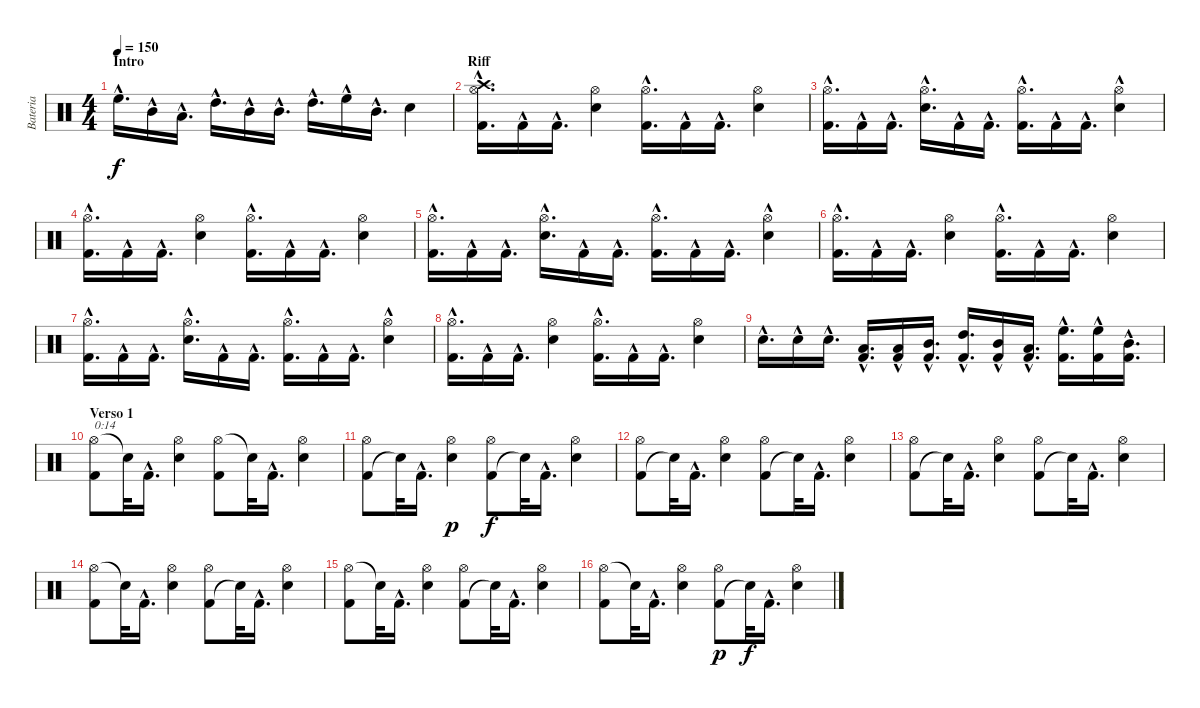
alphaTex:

\track ("Bateria" "Bateria") {instrument percussion}
\staff {score}
\articulation defaults
\ts (4 4)
\section ("" "Intro")
\tempo 150
\clef neutral
\ks c "High Floor Tom (hit)"{hac}.16{d dy f} "Mid Tom (hit)"{hac}.16 "Low Tom (hit)"{hac}.16{d} "High Tom (hit)"{hac}.16{d} "Mid Tom (hit)"{hac}.16 "Mid Tom (hit)"{hac}.16{d} "High Tom (hit)"{hac}.16{d} "High Floor Tom (hit)"{hac}.16 "Mid Tom (hit)"{hac}.16{d} "Snare (hit) 2".4
|
\section ("" "Riff")
("Crash high (hit)" "Hi-Hat (open)" "Kick (hit) 2"{hac}).16{d} "Kick (hit) 2"{hac}.16 "Kick (hit) 2"{hac}.16{d} ("Hi-Hat (open)" "Snare (hit) 2").4 ("Hi-Hat (open)" "Kick (hit) 2"{hac}).16{d} "Kick (hit) 2"{hac}.16 "Kick (hit) 2"{hac}.16{d} ("Hi-Hat (open)" "Snare (hit) 2").4 |
("Hi-Hat (open)" "Kick (hit) 2"{hac}).16{d} "Kick (hit) 2"{hac}.16 "Kick (hit) 2"{hac}.16{d} ("Hi-Hat (open)" "Snare (hit) 2"{hac}).16{d} "Kick (hit) 2"{hac}.16 "Kick (hit) 2"{hac}.16{d} ("Hi-Hat (open)" "Kick (hit) 2"{hac}).16{d} "Kick (hit) 2"{hac}.16 "Kick (hit) 2"{hac}.16{d} ("Hi-Hat (open)" "Electric Snare (hit)"{hac}).4 |
("Kick (hit) 2"{hac} "Hi-Hat (open)").16{d} "Kick (hit) 2"{hac}.16 "Kick (hit) 2"{hac}.16{d} ("Snare (hit) 2" "Hi-Hat (open)").4 ("Kick (hit) 2"{hac} "Hi-Hat (open)").16{d} "Kick (hit) 2"{hac}.16 "Kick (hit) 2"{hac}.16{d} ("Snare (hit) 2" "Hi-Hat (open)").4 |
("Kick (hit) 2"{hac} "Hi-Hat (open)").16{d} "Kick (hit) 2"{hac}.16 "Kick (hit) 2"{hac}.16{d} ("Snare (hit) 2"{hac} "Hi-Hat (open)").16{d} "Kick (hit) 2"{hac}.16 "Kick (hit) 2"{hac}.16{d} ("Kick (hit) 2"{hac} "Hi-Hat (open)").16{d} "Kick (hit) 2"{hac}.16 "Kick (hit) 2"{hac}.16{d} ("Electric Snare (hit)"{hac} "Hi-Hat (open)").4 |
("Kick (hit) 2"{hac} "Hi-Hat (open)").16{d} "Kick (hit) 2"{hac}.16 "Kick (hit) 2"{hac}.16{d} ("Snare (hit) 2" "Hi-Hat (open)").4 ("Kick (hit) 2"{hac} "Hi-Hat (open)").16{d} "Kick (hit) 2"{hac}.16 "Kick (hit) 2"{hac}.16{d} ("Snare (hit) 2" "Hi-Hat (open)").4 |
("Kick (hit) 2"{hac} "Hi-Hat (open)").16{d} "Kick (hit) 2"{hac}.16 "Kick (hit) 2"{hac}.16{d} ("Snare (hit) 2"{hac} "Hi-Hat (open)").16{d} "Kick (hit) 2"{hac}.16 "Kick (hit) 2"{hac}.16{d} ("Kick (hit) 2"{hac} "Hi-Hat (open)").16{d} "Kick (hit) 2"{hac}.16 "Kick (hit) 2"{hac}.16{d} ("Electric Snare (hit)"{hac} "Hi-Hat (open)").4 |
("Kick (hit) 2"{hac} "Hi-Hat (open)").16{d} "Kick (hit) 2"{hac}.16 "Kick (hit) 2"{hac}.16{d} ("Snare (hit) 2" "Hi-Hat (open)").4 ("Kick (hit) 2"{hac} "Hi-Hat (open)").16{d} "Kick (hit) 2"{hac}.16 "Kick (hit) 2"{hac}.16{d} ("Snare (hit) 2" "Hi-Hat (open)").4 |
"Snare (hit) 2"{hac}.16{d} "Snare (hit) 2"{hac}.16 "Snare (hit) 2"{hac}.16{d} ("Low Tom (hit)"{hac} "Kick (hit) 2"{hac}).16{d} ("Low Tom (hit)"{hac} "Kick (hit) 2"{hac}).16 ("Mid Tom (hit)"{hac} "Kick (hit) 2"{hac}).16{d} ("High Tom (hit)"{hac} "Kick (hit) 2"{hac}).16{d} ("Mid Tom (hit)"{hac} "Kick (hit) 2"{hac}).16 ("Low Tom (hit)"{hac} "Kick (hit) 2"{hac}).16{d} ("High Floor Tom (hit)"{hac} "Kick (hit) 2"{hac}).16{d} ("High Floor Tom (hit)"{hac} "Kick (hit) 2"{hac}).16 ("Mid Tom (hit)"{hac} "Kick (hit) 2"{hac}).16{d} |
\section ("" "Verso 1")
("Hi-Hat (open)" "Kick (hit) 2").8{txt "0:14"} "Snare (hit)"{t}.32 "Kick (hit) 2"{hac}.16{d} ("Hi-Hat (open)" "Snare (hit) 2").4 ("Hi-Hat (open)" "Kick (hit) 2").8 "Snare (hit)"{t}.32 "Kick (hit) 2"{hac}.16{d} ("Hi-Hat (open)" "Snare (hit) 2").4 |
("Kick (hit) 2" "Hi-Hat (open)").8 "Snare (hit)"{t}.32 "Kick (hit) 2"{hac}.16{d} ("Snare (hit) 2" "Hi-Hat (open)").4{dy p} ("Kick (hit) 2" "Hi-Hat (open)").8{dy f} "Snare (hit)"{t}.32 "Kick (hit) 2"{hac}.16{d} ("Snare (hit) 2" "Hi-Hat (open)").4 |
("Kick (hit) 2" "Hi-Hat (open)").8 "Snare (hit)"{t}.32 "Kick (hit) 2"{hac}.16{d} ("Snare (hit) 2" "Hi-Hat (open)").4 ("Kick (hit) 2" "Hi-Hat (open)").8 "Snare (hit)"{t}.32 "Kick (hit) 2"{hac}.16{d} ("Hi-Hat (open)" "Snare (hit) 2").4 |
("Kick (hit) 2" "Hi-Hat (open)").8 "Snare (hit)"{t}.32 "Kick (hit) 2"{hac}.16{d} ("Hi-Hat (open)" "Snare (hit) 2").4 ("Kick (hit) 2" "Hi-Hat (open)").8 "Snare (hit)"{t}.32 "Kick (hit) 2"{hac}.16{d} ("Hi-Hat (open)" "Snare (hit) 2").4 |
("Hi-Hat (open)" "Kick (hit) 2").8 "Snare (hit)"{t}.32 "Kick (hit) 2"{hac}.16{d} ("Hi-Hat (open)" "Snare (hit) 2").4 ("Kick (hit) 2" "Hi-Hat (open)").8 "Snare (hit)"{t}.32 "Kick (hit) 2"{hac}.16{d} ("Hi-Hat (open)" "Snare (hit) 2").4 |
("Hi-Hat (open)" "Kick (hit) 2").8 "Snare (hit)"{t}.32 "Kick (hit) 2"{hac}.16{d} ("Hi-Hat (open)" "Snare (hit) 2").4 ("Kick (hit) 2" "Hi-Hat (open)").8 "Snare (hit)"{t}.32 "Kick (hit) 2"{hac}.16{d} ("Hi-Hat (open)" "Snare (hit) 2").4 |
("Hi-Hat (open)" "Kick (hit) 2").8 "Snare (hit)"{t}.32 "Kick (hit) 2"{hac}.16{d} ("Hi-Hat (open)" "Snare (hit) 2").4 ("Kick (hit) 2" "Hi-Hat (open)").8{dy p} "Snare (hit)"{t}.32{dy f} "Kick (hit) 2"{hac}.16{d} ("Hi-Hat (open)" "Snare (hit) 2").4
